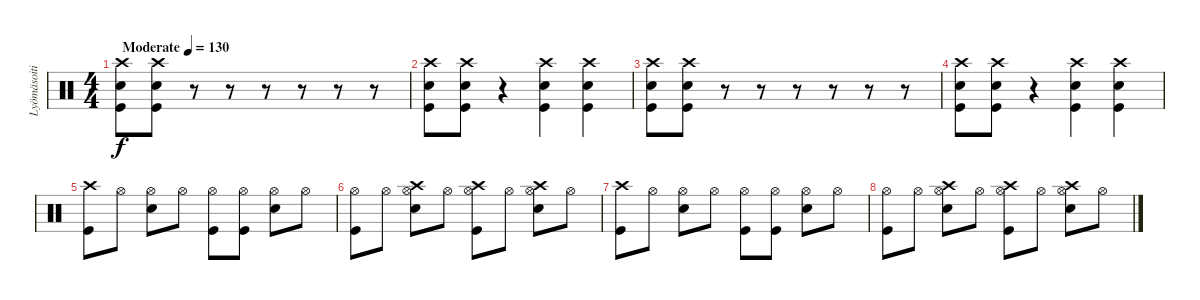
\track ("Lyömäsoitin" "Lyömäsoiti") {instrument percussion}
\staff {score}
\articulation defaults
\ts (4 4)
\tempo (130 "Moderate")
\clef neutral
\ks c
("Crash high (hit)" "Snare (hit) 2" "Kick (hit)").8{dy f} ("Crash high (hit)" "Snare (hit) 2" "Kick (hit)").8 r.8 r.8 r.8 r.8 r.8 r.8 |
("Crash high (hit)" "Snare (hit) 2" "Kick (hit)").8 ("Crash high (hit)" "Snare (hit) 2" "Kick (hit)").8 r.4 ("Kick (hit)" "Crash high (hit)" "Snare (hit) 2").4 ("Kick (hit)" "Crash high (hit)" "Snare (hit) 2").4 |
("Crash high (hit)" "Snare (hit) 2" "Kick (hit)").8 ("Crash high (hit)" "Snare (hit) 2" "Kick (hit)").8 r.8 r.8 r.8 r.8 r.8 r.8 |
("Crash high (hit)" "Snare (hit) 2" "Kick (hit)").8 ("Crash high (hit)" "Snare (hit) 2" "Kick (hit)").8 r.4 ("Kick (hit)" "Crash high (hit)" "Snare (hit) 2").4 ("Kick (hit)" "Crash high (hit)" "Snare (hit) 2").4 |
("Crash high (hit)" "Kick (hit)").8 "Hi-Hat (open)".8 ("Hi-Hat (open)" "Snare (hit) 2").8 "Hi-Hat (open)".8 ("Hi-Hat (open)" "Kick (hit)").8 ("Hi-Hat (open)" "Kick (hit)").8 ("Hi-Hat (open)" "Snare (hit) 2").8 "Hi-Hat (open)".8 |
("Hi-Hat (open)" "Kick (hit)").8 "Hi-Hat (open)".8 ("Hi-Hat (open)" "Snare (hit) 2" "Crash high (hit)").8 "Hi-Hat (open)".8 ("Hi-Hat (open)" "Kick (hit)" "Crash high (hit)").8 "Hi-Hat (open)".8 ("Hi-Hat (open)" "Snare (hit) 2" "Crash high (hit)").8 "Hi-Hat (open)".8 |
("Crash high (hit)" "Kick (hit)").8 "Hi-Hat (open)".8 ("Hi-Hat (open)" "Snare (hit) 2").8 "Hi-Hat (open)".8 ("Hi-Hat (open)" "Kick (hit)").8 ("Hi-Hat (open)" "Kick (hit)").8 ("Hi-Hat (open)" "Snare (hit) 2").8 "Hi-Hat (open)".8 |
("Hi-Hat (open)" "Kick (hit)").8 "Hi-Hat (open)".8 ("Hi-Hat (open)" "Snare (hit) 2" "Crash high (hit)").8 "Hi-Hat (open)".8 ("Hi-Hat (open)" "Kick (hit)" "Crash high (hit)").8 "Hi-Hat (open)".8 ("Hi-Hat (open)" "Snare (hit) 2" "Crash high (hit)").8 "Hi-Hat (open)".8
